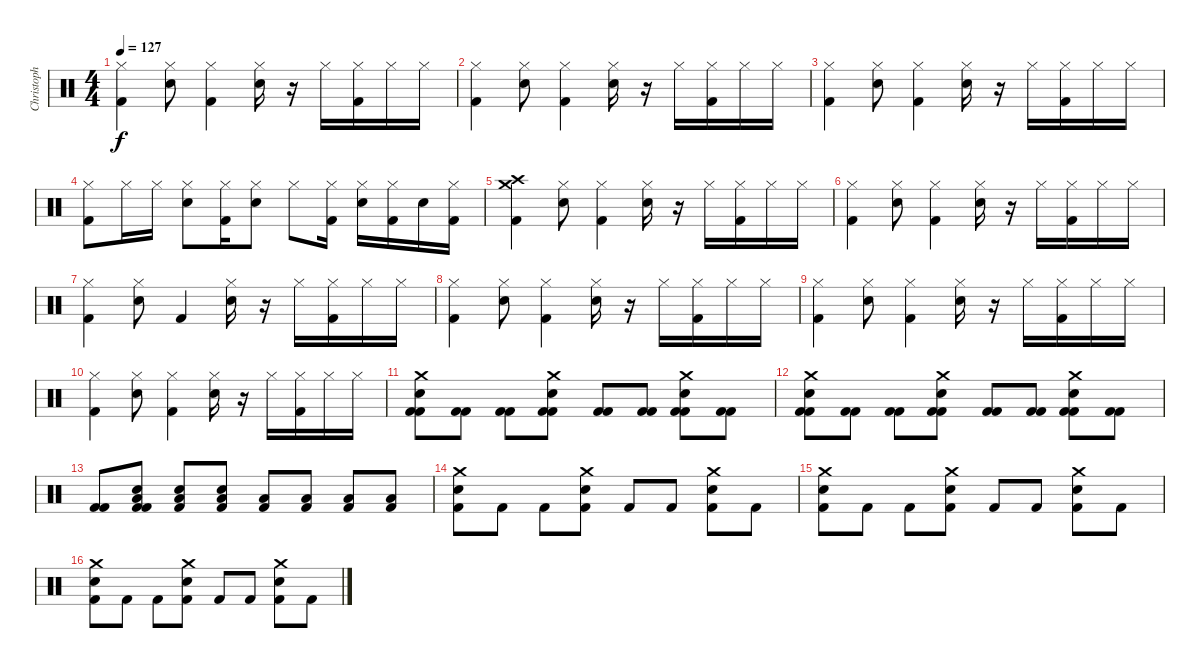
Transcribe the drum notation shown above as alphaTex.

\track ("Christoph Schneider - Drums" "Christoph ") {instrument percussion}
\staff {score}
\articulation defaults
\ts (4 4)
\tempo 127
\clef neutral
\ks c
("Hi-Hat (closed)" "Kick (hit) 2").4{dy f} ("Hi-Hat (closed)" "Electric Snare (hit)").8 ("Hi-Hat (closed)" "Kick (hit) 2").4 ("Hi-Hat (closed)" "Electric Snare (hit)").16 r.16 "Hi-Hat (closed)".16 ("Hi-Hat (closed)" "Kick (hit) 2").16 "Hi-Hat (closed)".16 "Hi-Hat (closed)".16 |
("Hi-Hat (closed)" "Kick (hit) 2").4 ("Hi-Hat (closed)" "Electric Snare (hit)").8 ("Hi-Hat (closed)" "Kick (hit) 2").4 ("Hi-Hat (closed)" "Electric Snare (hit)").16 r.16 "Hi-Hat (closed)".16 ("Hi-Hat (closed)" "Kick (hit) 2").16 "Hi-Hat (closed)".16 "Hi-Hat (closed)".16 |
("Hi-Hat (closed)" "Kick (hit) 2").4 ("Hi-Hat (closed)" "Electric Snare (hit)").8 ("Hi-Hat (closed)" "Kick (hit) 2").4 ("Hi-Hat (closed)" "Electric Snare (hit)").16 r.16 "Hi-Hat (closed)".16 ("Hi-Hat (closed)" "Kick (hit) 2").16 "Hi-Hat (closed)".16 "Hi-Hat (closed)".16 |
("Hi-Hat (closed)" "Kick (hit) 2").8 "Hi-Hat (closed)".16 "Hi-Hat (closed)".16 ("Hi-Hat (closed)" "Electric Snare (hit)").8 ("Hi-Hat (closed)" "Kick (hit) 2").16 ("Hi-Hat (closed)" "Electric Snare (hit)").8 "Hi-Hat (closed)".8 ("Hi-Hat (closed)" "Kick (hit) 2").16 ("Hi-Hat (closed)" "Electric Snare (hit)").16 ("Hi-Hat (closed)" "Kick (hit) 2").16 "Electric Snare (hit)".16 ("Hi-Hat (closed)" "Kick (hit) 2").16 |
("Crash high (hit)" "Crash medium (hit)" "Kick (hit) 2").4 ("Hi-Hat (closed)" "Electric Snare (hit)").8 ("Hi-Hat (closed)" "Kick (hit) 2").4 ("Hi-Hat (closed)" "Electric Snare (hit)").16 r.16 "Hi-Hat (closed)".16 ("Hi-Hat (closed)" "Kick (hit) 2").16 "Hi-Hat (closed)".16 "Hi-Hat (closed)".16 |
("Hi-Hat (closed)" "Kick (hit) 2").4 ("Hi-Hat (closed)" "Electric Snare (hit)").8 ("Hi-Hat (closed)" "Kick (hit) 2").4 ("Hi-Hat (closed)" "Electric Snare (hit)").16 r.16 "Hi-Hat (closed)".16 ("Hi-Hat (closed)" "Kick (hit) 2").16 "Hi-Hat (closed)".16 "Hi-Hat (closed)".16 |
("Hi-Hat (closed)" "Kick (hit) 2").4 ("Hi-Hat (closed)" "Electric Snare (hit)").8 "Kick (hit) 2".4 ("Hi-Hat (closed)" "Electric Snare (hit)").16 r.16 "Hi-Hat (closed)".16 ("Hi-Hat (closed)" "Kick (hit) 2").16 "Hi-Hat (closed)".16 "Hi-Hat (closed)".16 |
("Hi-Hat (closed)" "Kick (hit) 2").4 ("Hi-Hat (closed)" "Electric Snare (hit)").8 ("Hi-Hat (closed)" "Kick (hit) 2").4 ("Hi-Hat (closed)" "Electric Snare (hit)").16 r.16 "Hi-Hat (closed)".16 ("Hi-Hat (closed)" "Kick (hit) 2").16 "Hi-Hat (closed)".16 "Hi-Hat (closed)".16 |
("Hi-Hat (closed)" "Kick (hit) 2").4 ("Hi-Hat (closed)" "Electric Snare (hit)").8 ("Hi-Hat (closed)" "Kick (hit) 2").4 ("Hi-Hat (closed)" "Electric Snare (hit)").16 r.16 "Hi-Hat (closed)".16 ("Hi-Hat (closed)" "Kick (hit) 2").16 "Hi-Hat (closed)".16 "Hi-Hat (closed)".16 |
("Hi-Hat (closed)" "Kick (hit) 2").4 ("Hi-Hat (closed)" "Electric Snare (hit)").8 ("Hi-Hat (closed)" "Kick (hit) 2").4 ("Hi-Hat (closed)" "Electric Snare (hit)").16 r.16 "Hi-Hat (closed)".16 ("Hi-Hat (closed)" "Kick (hit) 2").16 "Hi-Hat (closed)".16 "Hi-Hat (closed)".16 |
("Crash medium (hit)" "Electric Snare (hit)" "Kick (hit) 2" "Kick (hit) 2").8 ("Kick (hit) 2" "Kick (hit) 2").8 ("Kick (hit) 2" "Kick (hit) 2").8 ("Crash medium (hit)" "Electric Snare (hit)" "Kick (hit) 2" "Kick (hit) 2").8 ("Kick (hit) 2" "Kick (hit) 2").8 ("Kick (hit) 2" "Kick (hit) 2").8 ("Crash medium (hit)" "Electric Snare (hit)" "Kick (hit) 2" "Kick (hit) 2").8 ("Kick (hit) 2" "Kick (hit) 2").8 |
("Crash medium (hit)" "Electric Snare (hit)" "Kick (hit) 2" "Kick (hit) 2").8 ("Kick (hit) 2" "Kick (hit) 2").8 ("Kick (hit) 2" "Kick (hit) 2").8 ("Crash medium (hit)" "Electric Snare (hit)" "Kick (hit) 2" "Kick (hit) 2").8 ("Kick (hit) 2" "Kick (hit) 2").8 ("Kick (hit) 2" "Kick (hit) 2").8 ("Crash medium (hit)" "Electric Snare (hit)" "Kick (hit) 2" "Kick (hit) 2").8 ("Kick (hit) 2" "Kick (hit) 2").8 |
("Kick (hit) 2" "Kick (hit) 2").8{volume 11} ("Electric Snare (hit)" "Low Tom (hit)" "Kick (hit) 2" "Kick (hit) 2").8 ("Electric Snare (hit)" "Low Tom (hit)" "Kick (hit) 2").8 ("Electric Snare (hit)" "Low Tom (hit)" "Kick (hit) 2").8{balance 12} ("Low Tom (hit)" "Kick (hit) 2").8{balance 8} ("Low Tom (hit)" "Kick (hit) 2").8 ("Low Tom (hit)" "Kick (hit) 2").8 ("Low Tom (hit)" "Kick (hit) 2").8 |
("Crash medium (hit)" "Electric Snare (hit)" "Kick (hit) 2").8 "Kick (hit) 2".8 "Kick (hit) 2".8 ("Crash medium (hit)" "Electric Snare (hit)" "Kick (hit) 2").8 "Kick (hit) 2".8 "Kick (hit) 2".8 ("Crash medium (hit)" "Electric Snare (hit)" "Kick (hit) 2").8 "Kick (hit) 2".8 |
("Crash medium (hit)" "Electric Snare (hit)" "Kick (hit) 2").8 "Kick (hit) 2".8 "Kick (hit) 2".8 ("Crash medium (hit)" "Electric Snare (hit)" "Kick (hit) 2").8 "Kick (hit) 2".8 "Kick (hit) 2".8 ("Crash medium (hit)" "Electric Snare (hit)" "Kick (hit) 2").8 "Kick (hit) 2".8 |
("Crash medium (hit)" "Electric Snare (hit)" "Kick (hit) 2").8 "Kick (hit) 2".8 "Kick (hit) 2".8 ("Crash medium (hit)" "Electric Snare (hit)" "Kick (hit) 2").8 "Kick (hit) 2".8 "Kick (hit) 2".8 ("Crash medium (hit)" "Electric Snare (hit)" "Kick (hit) 2").8 "Kick (hit) 2".8
